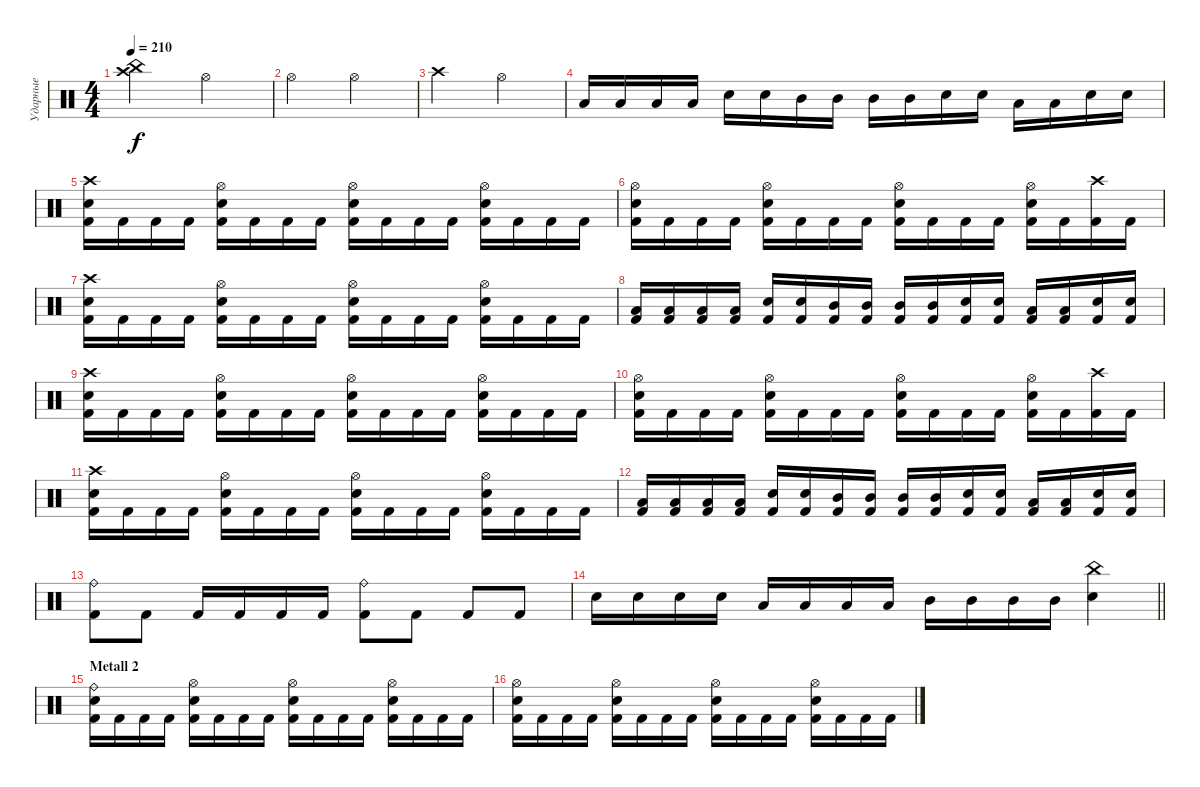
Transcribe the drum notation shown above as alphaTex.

\track ("Ударные" "Ударные") {instrument percussion}
\staff {score}
\articulation defaults
\ts (4 4)
\tempo 210
\clef neutral
\ks c
("Crash high (hit)" "China (hit)").2{dy f} "Hi-Hat (open)".2 |
"Hi-Hat (open)".2 "Hi-Hat (open)".2 |
"Crash high (hit)".2 "Hi-Hat (open)".2 |
"Low Tom (hit)".16 "Low Tom (hit)".16 "Low Tom (hit)".16 "Low Tom (hit)".16 "Snare (hit) 2".16 "Snare (hit) 2".16 "Mid Tom (hit)".16 "Mid Tom (hit)".16 "Mid Tom (hit)".16 "Mid Tom (hit)".16 "Snare (hit) 2".16 "Snare (hit) 2".16 "Low Tom (hit)".16 "Low Tom (hit)".16 "Snare (hit) 2".16 "Snare (hit) 2".16 |
("Crash high (hit)" "Snare (hit) 2" "Kick (hit) 2").16 "Kick (hit) 2".16 "Kick (hit) 2".16 "Kick (hit) 2".16 ("Hi-Hat (open)" "Snare (hit) 2" "Kick (hit) 2").16 "Kick (hit) 2".16 "Kick (hit) 2".16 "Kick (hit) 2".16 ("Hi-Hat (open)" "Snare (hit) 2" "Kick (hit) 2").16 "Kick (hit) 2".16 "Kick (hit) 2".16 "Kick (hit) 2".16 ("Hi-Hat (open)" "Snare (hit) 2" "Kick (hit) 2").16 "Kick (hit) 2".16 "Kick (hit) 2".16 "Kick (hit) 2".16 |
("Hi-Hat (open)" "Snare (hit) 2" "Kick (hit) 2").16 "Kick (hit) 2".16 "Kick (hit) 2".16 "Kick (hit) 2".16 ("Hi-Hat (open)" "Snare (hit) 2" "Kick (hit) 2").16 "Kick (hit) 2".16 "Kick (hit) 2".16 "Kick (hit) 2".16 ("Hi-Hat (open)" "Snare (hit) 2" "Kick (hit) 2").16 "Kick (hit) 2".16 "Kick (hit) 2".16 "Kick (hit) 2".16 ("Hi-Hat (open)" "Snare (hit) 2" "Kick (hit) 2").16 "Kick (hit) 2".16 ("Crash high (hit)" "Kick (hit) 2").16 "Kick (hit) 2".16 |
("Crash high (hit)" "Snare (hit) 2" "Kick (hit) 2").16 "Kick (hit) 2".16 "Kick (hit) 2".16 "Kick (hit) 2".16 ("Hi-Hat (open)" "Snare (hit) 2" "Kick (hit) 2").16 "Kick (hit) 2".16 "Kick (hit) 2".16 "Kick (hit) 2".16 ("Hi-Hat (open)" "Snare (hit) 2" "Kick (hit) 2").16 "Kick (hit) 2".16 "Kick (hit) 2".16 "Kick (hit) 2".16 ("Hi-Hat (open)" "Snare (hit) 2" "Kick (hit) 2").16 "Kick (hit) 2".16 "Kick (hit) 2".16 "Kick (hit) 2".16 |
("Low Tom (hit)" "Kick (hit) 2").16 ("Low Tom (hit)" "Kick (hit) 2").16 ("Low Tom (hit)" "Kick (hit) 2").16 ("Low Tom (hit)" "Kick (hit) 2").16 ("Snare (hit) 2" "Kick (hit) 2").16 ("Snare (hit) 2" "Kick (hit) 2").16 ("Mid Tom (hit)" "Kick (hit) 2").16 ("Mid Tom (hit)" "Kick (hit) 2").16 ("Mid Tom (hit)" "Kick (hit) 2").16 ("Mid Tom (hit)" "Kick (hit) 2").16 ("Snare (hit) 2" "Kick (hit) 2").16 ("Snare (hit) 2" "Kick (hit) 2").16 ("Low Tom (hit)" "Kick (hit) 2").16 ("Low Tom (hit)" "Kick (hit) 2").16 ("Snare (hit) 2" "Kick (hit) 2").16 ("Snare (hit) 2" "Kick (hit) 2").16 |
("Crash high (hit)" "Snare (hit) 2" "Kick (hit) 2").16 "Kick (hit) 2".16 "Kick (hit) 2".16 "Kick (hit) 2".16 ("Hi-Hat (open)" "Snare (hit) 2" "Kick (hit) 2").16 "Kick (hit) 2".16 "Kick (hit) 2".16 "Kick (hit) 2".16 ("Hi-Hat (open)" "Snare (hit) 2" "Kick (hit) 2").16 "Kick (hit) 2".16 "Kick (hit) 2".16 "Kick (hit) 2".16 ("Hi-Hat (open)" "Snare (hit) 2" "Kick (hit) 2").16 "Kick (hit) 2".16 "Kick (hit) 2".16 "Kick (hit) 2".16 |
("Hi-Hat (open)" "Snare (hit) 2" "Kick (hit) 2").16 "Kick (hit) 2".16 "Kick (hit) 2".16 "Kick (hit) 2".16 ("Hi-Hat (open)" "Snare (hit) 2" "Kick (hit) 2").16 "Kick (hit) 2".16 "Kick (hit) 2".16 "Kick (hit) 2".16 ("Hi-Hat (open)" "Snare (hit) 2" "Kick (hit) 2").16 "Kick (hit) 2".16 "Kick (hit) 2".16 "Kick (hit) 2".16 ("Hi-Hat (open)" "Snare (hit) 2" "Kick (hit) 2").16 "Kick (hit) 2".16 ("Crash high (hit)" "Kick (hit) 2").16 "Kick (hit) 2".16 |
("Crash high (hit)" "Snare (hit) 2" "Kick (hit) 2").16 "Kick (hit) 2".16 "Kick (hit) 2".16 "Kick (hit) 2".16 ("Hi-Hat (open)" "Snare (hit) 2" "Kick (hit) 2").16 "Kick (hit) 2".16 "Kick (hit) 2".16 "Kick (hit) 2".16 ("Hi-Hat (open)" "Snare (hit) 2" "Kick (hit) 2").16 "Kick (hit) 2".16 "Kick (hit) 2".16 "Kick (hit) 2".16 ("Hi-Hat (open)" "Snare (hit) 2" "Kick (hit) 2").16 "Kick (hit) 2".16 "Kick (hit) 2".16 "Kick (hit) 2".16 |
("Low Tom (hit)" "Kick (hit) 2").16 ("Low Tom (hit)" "Kick (hit) 2").16 ("Low Tom (hit)" "Kick (hit) 2").16 ("Low Tom (hit)" "Kick (hit) 2").16 ("Snare (hit) 2" "Kick (hit) 2").16 ("Snare (hit) 2" "Kick (hit) 2").16 ("Mid Tom (hit)" "Kick (hit) 2").16 ("Mid Tom (hit)" "Kick (hit) 2").16 ("Mid Tom (hit)" "Kick (hit) 2").16 ("Mid Tom (hit)" "Kick (hit) 2").16 ("Snare (hit) 2" "Kick (hit) 2").16 ("Snare (hit) 2" "Kick (hit) 2").16 ("Low Tom (hit)" "Kick (hit) 2").16 ("Low Tom (hit)" "Kick (hit) 2").16 ("Snare (hit) 2" "Kick (hit) 2").16 ("Snare (hit) 2" "Kick (hit) 2").16 |
("Ride (bell)" "Kick (hit) 2").8 "Kick (hit) 2".8 "Kick (hit) 2".16 "Kick (hit) 2".16 "Kick (hit) 2".16 "Kick (hit) 2".16 ("Ride (bell)" "Kick (hit) 2").8 "Kick (hit) 2".8 "Kick (hit) 2".8 "Kick (hit) 2".8 |
\barLineRight lightlight "Snare (hit) 2".16 "Snare (hit) 2".16 "Snare (hit) 2".16 "Snare (hit) 2".16 "Low Tom (hit)".16 "Low Tom (hit)".16 "Low Tom (hit)".16 "Low Tom (hit)".16 "Mid Tom (hit)".16 "Mid Tom (hit)".16 "Mid Tom (hit)".16 "Mid Tom (hit)".16
("China (hit)" "Snare (hit) 2").4 |
\section ("" "Metall 2")
("Ride (bell)" "Snare (hit) 2" "Kick (hit) 2").16 "Kick (hit) 2".16 "Kick (hit) 2".16 "Kick (hit) 2".16 ("Hi-Hat (open)" "Snare (hit) 2" "Kick (hit) 2").16 "Kick (hit) 2".16 "Kick (hit) 2".16 "Kick (hit) 2".16 ("Hi-Hat (open)" "Snare (hit) 2" "Kick (hit) 2").16 "Kick (hit) 2".16 "Kick (hit) 2".16 "Kick (hit) 2".16 ("Hi-Hat (open)" "Snare (hit) 2" "Kick (hit) 2").16 "Kick (hit) 2".16 "Kick (hit) 2".16 "Kick (hit) 2".16 |
("Hi-Hat (open)" "Snare (hit) 2" "Kick (hit) 2").16 "Kick (hit) 2".16 "Kick (hit) 2".16 "Kick (hit) 2".16 ("Hi-Hat (open)" "Snare (hit) 2" "Kick (hit) 2").16 "Kick (hit) 2".16 "Kick (hit) 2".16 "Kick (hit) 2".16 ("Hi-Hat (open)" "Snare (hit) 2" "Kick (hit) 2").16 "Kick (hit) 2".16 "Kick (hit) 2".16 "Kick (hit) 2".16 ("Hi-Hat (open)" "Snare (hit) 2" "Kick (hit) 2").16 "Kick (hit) 2".16 "Kick (hit) 2".16 "Kick (hit) 2".16
